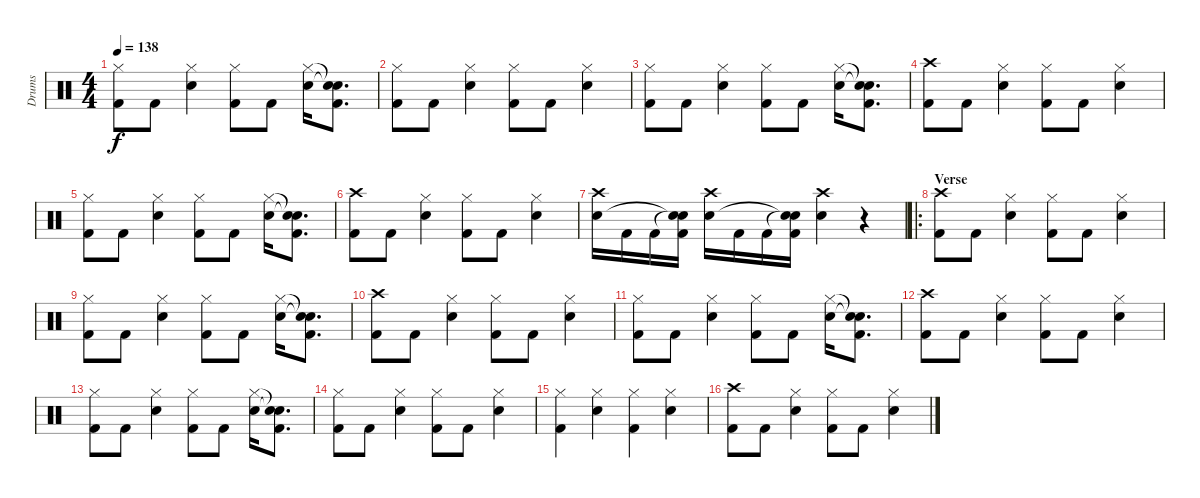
\track ("Drums" "Drums") {instrument percussion}
\staff {score}
\articulation defaults
\ts (4 4)
\tempo 138
\clef neutral
\ks c
("Hi-Hat (closed)" "Kick (hit) 2").8{dy f} "Kick (hit) 2".8 ("Hi-Hat (closed)" "Snare (hit) 2").4 ("Hi-Hat (closed)" "Kick (hit) 2").8 "Kick (hit) 2".8 ("Hi-Hat (closed)" "Snare (hit) 2").16 ("Snare (hit)"{t} "Snare (hit)"{t} "Kick (hit) 2").8{d} |
("Hi-Hat (closed)" "Kick (hit) 2").8 "Kick (hit) 2".8 ("Hi-Hat (closed)" "Snare (hit) 2").4 ("Hi-Hat (closed)" "Kick (hit) 2").8 "Kick (hit) 2".8 ("Hi-Hat (closed)" "Snare (hit) 2").4 |
("Hi-Hat (closed)" "Kick (hit) 2").8 "Kick (hit) 2".8 ("Hi-Hat (closed)" "Snare (hit) 2").4 ("Hi-Hat (closed)" "Kick (hit) 2").8 "Kick (hit) 2".8 ("Hi-Hat (closed)" "Snare (hit) 2").16 ("Snare (hit)"{t} "Snare (hit)"{t} "Kick (hit) 2").8{d} |
("Crash high (hit)" "Kick (hit) 2").8 "Kick (hit) 2".8 ("Hi-Hat (closed)" "Snare (hit) 2").4 ("Hi-Hat (closed)" "Kick (hit) 2").8 "Kick (hit) 2".8 ("Hi-Hat (closed)" "Snare (hit) 2").4 |
("Hi-Hat (closed)" "Kick (hit) 2").8 "Kick (hit) 2".8 ("Hi-Hat (closed)" "Snare (hit) 2").4 ("Hi-Hat (closed)" "Kick (hit) 2").8 "Kick (hit) 2".8 ("Hi-Hat (closed)" "Snare (hit) 2").16 ("Snare (hit)"{t} "Snare (hit)"{t} "Kick (hit) 2").8{d} |
("Crash high (hit)" "Kick (hit) 2").8 "Kick (hit) 2".8 ("Hi-Hat (closed)" "Snare (hit) 2").4 ("Hi-Hat (closed)" "Kick (hit) 2").8 "Kick (hit) 2".8 ("Hi-Hat (closed)" "Snare (hit) 2").4 |
("Crash high (hit)" "Snare (hit) 2").16 "Kick (hit) 2".16 "Kick (hit) 2".16 ("Snare (hit)"{t} "Snare (hit)"{t} "Kick (hit) 2").16 ("Crash high (hit)" "Snare (hit) 2").16 "Kick (hit) 2".16 "Kick (hit) 2".16 ("Snare (hit)"{t} "Snare (hit)"{t} "Kick (hit) 2").16 ("Crash high (hit)" "Snare (hit) 2").4 r.4 |
\ro
\section ("" "Verse")
("Crash high (hit)" "Kick (hit) 2").8 "Kick (hit) 2".8 ("Hi-Hat (closed)" "Snare (hit) 2").4 ("Hi-Hat (closed)" "Kick (hit) 2").8 "Kick (hit) 2".8 ("Hi-Hat (closed)" "Snare (hit) 2").4 |
("Hi-Hat (closed)" "Kick (hit) 2").8 "Kick (hit) 2".8 ("Hi-Hat (closed)" "Snare (hit) 2").4 ("Hi-Hat (closed)" "Kick (hit) 2").8 "Kick (hit) 2".8 ("Hi-Hat (closed)" "Snare (hit) 2").16 ("Snare (hit)"{t} "Snare (hit)"{t} "Kick (hit) 2").8{d} |
("Crash high (hit)" "Kick (hit) 2").8 "Kick (hit) 2".8 ("Hi-Hat (closed)" "Snare (hit) 2").4 ("Hi-Hat (closed)" "Kick (hit) 2").8 "Kick (hit) 2".8 ("Hi-Hat (closed)" "Snare (hit) 2").4 |
("Hi-Hat (closed)" "Kick (hit) 2").8 "Kick (hit) 2".8 ("Hi-Hat (closed)" "Snare (hit) 2").4 ("Hi-Hat (closed)" "Kick (hit) 2").8 "Kick (hit) 2".8 ("Hi-Hat (closed)" "Snare (hit) 2").16 ("Snare (hit)"{t} "Snare (hit)"{t} "Kick (hit) 2").8{d} |
("Crash high (hit)" "Kick (hit) 2").8 "Kick (hit) 2".8 ("Hi-Hat (closed)" "Snare (hit) 2").4 ("Hi-Hat (closed)" "Kick (hit) 2").8 "Kick (hit) 2".8 ("Hi-Hat (closed)" "Snare (hit) 2").4 |
("Hi-Hat (closed)" "Kick (hit) 2").8 "Kick (hit) 2".8 ("Hi-Hat (closed)" "Snare (hit) 2").4 ("Hi-Hat (closed)" "Kick (hit) 2").8 "Kick (hit) 2".8 ("Hi-Hat (closed)" "Snare (hit) 2").16 ("Snare (hit)"{t} "Snare (hit)"{t} "Kick (hit) 2").8{d} |
("Hi-Hat (closed)" "Kick (hit) 2").8 "Kick (hit) 2".8 ("Hi-Hat (closed)" "Snare (hit) 2").4 ("Hi-Hat (closed)" "Kick (hit) 2").8 "Kick (hit) 2".8 ("Hi-Hat (closed)" "Snare (hit) 2").4 |
("Hi-Hat (closed)" "Kick (hit) 2").4 ("Hi-Hat (closed)" "Snare (hit) 2").4 ("Hi-Hat (closed)" "Kick (hit) 2").4 ("Hi-Hat (closed)" "Snare (hit) 2").4 |
("Crash high (hit)" "Kick (hit) 2").8 "Kick (hit) 2".8 ("Hi-Hat (closed)" "Snare (hit) 2").4 ("Hi-Hat (closed)" "Kick (hit) 2").8 "Kick (hit) 2".8 ("Hi-Hat (closed)" "Snare (hit) 2").4
